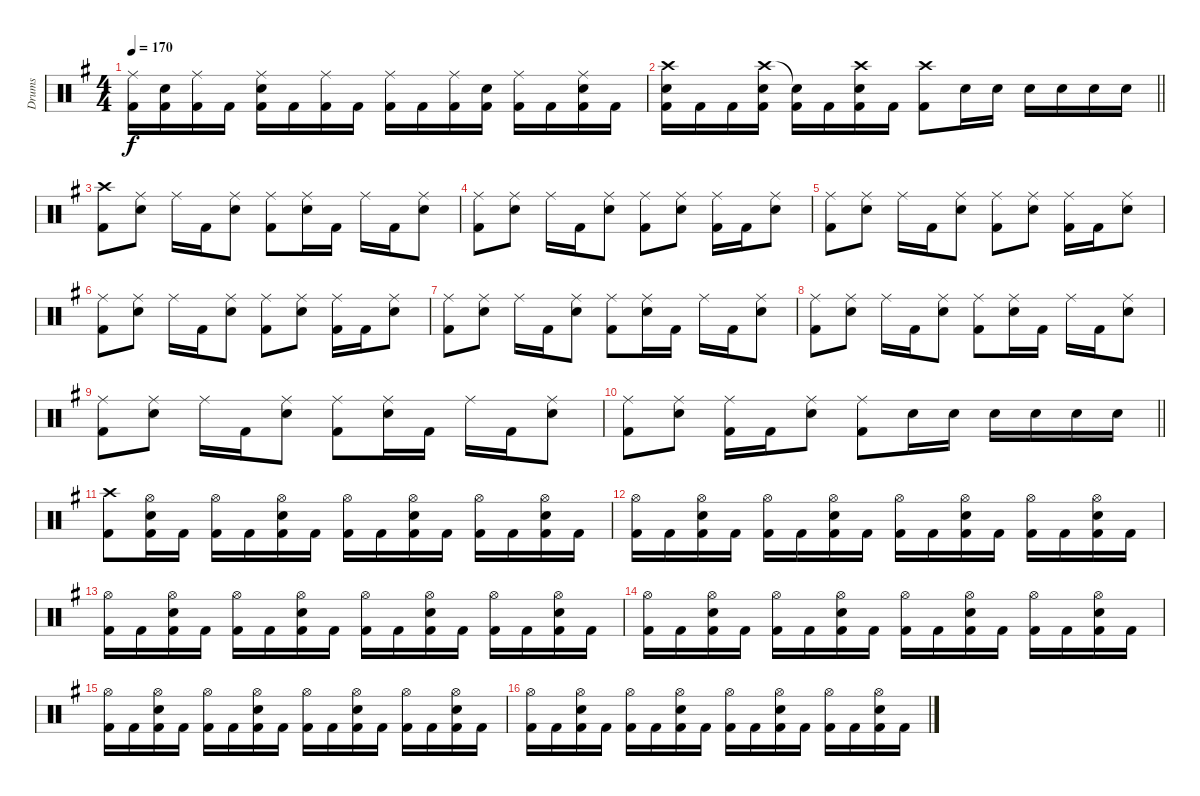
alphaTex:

\track ("Drums" "Drums") {instrument percussion}
\staff {score}
\articulation defaults
\ts (4 4)
\tempo 170
\clef neutral
\ks g
("Ride (middle)" "Kick (hit) 2").16{dy f} ("Snare (hit) 2" "Kick (hit) 2").16 ("Ride (middle)" "Kick (hit) 2").16 "Kick (hit) 2".16 ("Ride (middle)" "Snare (hit) 2" "Kick (hit) 2").16 "Kick (hit) 2".16 ("Ride (middle)" "Kick (hit) 2").16 "Kick (hit) 2".16 ("Ride (middle)" "Kick (hit) 2").16 "Kick (hit) 2".16 ("Ride (middle)" "Kick (hit) 2").16 ("Snare (hit) 2" "Kick (hit) 2").16 ("Ride (middle)" "Kick (hit) 2").16 "Kick (hit) 2".16 ("Ride (middle)" "Snare (hit) 2" "Kick (hit) 2").16 "Kick (hit) 2".16 |
\barLineRight lightlight
("Crash high (hit)" "Snare (hit) 2" "Kick (hit) 2").16 "Kick (hit) 2".16 "Kick (hit) 2".16 ("Crash high (hit)" "Snare (hit) 2" "Kick (hit) 2").16 ("Snare (hit)"{t} "Kick (hit) 2").16 "Kick (hit) 2".16 ("Crash high (hit)" "Snare (hit) 2" "Kick (hit) 2").16 "Kick (hit) 2".16 ("Crash high (hit)" "Kick (hit) 2").8 "Snare (hit) 2".16 "Snare (hit) 2".16 "Snare (hit) 2".16 "Snare (hit) 2".16 "Snare (hit) 2".16 "Snare (hit) 2".16 |
("Crash high (hit)" "Kick (hit) 2").8 ("Ride (middle)" "Snare (hit) 2").8 "Ride (middle)".16 "Kick (hit) 2".16 ("Ride (middle)" "Snare (hit) 2").8 ("Ride (middle)" "Kick (hit) 2").8 ("Ride (middle)" "Snare (hit) 2").16 "Kick (hit) 2".16 "Ride (middle)".16 "Kick (hit) 2".16 ("Ride (middle)" "Snare (hit) 2").8 |
("Ride (middle)" "Kick (hit) 2").8 ("Ride (middle)" "Snare (hit) 2").8 "Ride (middle)".16 "Kick (hit) 2".16 ("Ride (middle)" "Snare (hit) 2").8 ("Ride (middle)" "Kick (hit) 2").8 ("Ride (middle)" "Snare (hit) 2").8 ("Ride (middle)" "Kick (hit) 2").16 "Kick (hit) 2".16 ("Ride (middle)" "Snare (hit) 2").8 |
("Ride (middle)" "Kick (hit) 2").8 ("Ride (middle)" "Snare (hit) 2").8 "Ride (middle)".16 "Kick (hit) 2".16 ("Ride (middle)" "Snare (hit) 2").8 ("Ride (middle)" "Kick (hit) 2").8 ("Ride (middle)" "Snare (hit) 2").8 ("Ride (middle)" "Kick (hit) 2").16 "Kick (hit) 2".16 ("Ride (middle)" "Snare (hit) 2").8 |
("Ride (middle)" "Kick (hit) 2").8 ("Ride (middle)" "Snare (hit) 2").8 "Ride (middle)".16 "Kick (hit) 2".16 ("Ride (middle)" "Snare (hit) 2").8 ("Ride (middle)" "Kick (hit) 2").8 ("Ride (middle)" "Snare (hit) 2").8 ("Ride (middle)" "Kick (hit) 2").16 "Kick (hit) 2".16 ("Ride (middle)" "Snare (hit) 2").8 |
("Ride (middle)" "Kick (hit) 2").8 ("Ride (middle)" "Snare (hit) 2").8 "Ride (middle)".16 "Kick (hit) 2".16 ("Ride (middle)" "Snare (hit) 2").8 ("Ride (middle)" "Kick (hit) 2").8 ("Ride (middle)" "Snare (hit) 2").16 "Kick (hit) 2".16 "Ride (middle)".16 "Kick (hit) 2".16 ("Ride (middle)" "Snare (hit) 2").8 |
("Ride (middle)" "Kick (hit) 2").8 ("Ride (middle)" "Snare (hit) 2").8 "Ride (middle)".16 "Kick (hit) 2".16 ("Ride (middle)" "Snare (hit) 2").8 ("Ride (middle)" "Kick (hit) 2").8 ("Ride (middle)" "Snare (hit) 2").16 "Kick (hit) 2".16 "Ride (middle)".16 "Kick (hit) 2".16 ("Ride (middle)" "Snare (hit) 2").8 |
("Ride (middle)" "Kick (hit) 2").8 ("Ride (middle)" "Snare (hit) 2").8 "Ride (middle)".16 "Kick (hit) 2".16 ("Ride (middle)" "Snare (hit) 2").8 ("Ride (middle)" "Kick (hit) 2").8 ("Ride (middle)" "Snare (hit) 2").16 "Kick (hit) 2".16 "Ride (middle)".16 "Kick (hit) 2".16 ("Ride (middle)" "Snare (hit) 2").8 |
\barLineRight lightlight
("Ride (middle)" "Kick (hit) 2").8 ("Ride (middle)" "Snare (hit) 2").8 ("Ride (middle)" "Kick (hit) 2").16 "Kick (hit) 2".16 ("Ride (middle)" "Snare (hit) 2").8 ("Ride (middle)" "Kick (hit) 2").8 "Snare (hit) 2".16 "Snare (hit) 2".16 "Snare (hit) 2".16 "Snare (hit) 2".16 "Snare (hit) 2".16 "Snare (hit) 2".16 |
("Crash high (hit)" "Kick (hit) 2").8 ("Hi-Hat (open)" "Snare (hit) 2" "Kick (hit) 2").16 "Kick (hit) 2".16 ("Hi-Hat (open)" "Kick (hit) 2").16 "Kick (hit) 2".16 ("Hi-Hat (open)" "Snare (hit) 2" "Kick (hit) 2").16 "Kick (hit) 2".16 ("Hi-Hat (open)" "Kick (hit) 2").16 "Kick (hit) 2".16 ("Hi-Hat (open)" "Snare (hit) 2" "Kick (hit) 2").16 "Kick (hit) 2".16 ("Hi-Hat (open)" "Kick (hit) 2").16 "Kick (hit) 2".16 ("Hi-Hat (open)" "Snare (hit) 2" "Kick (hit) 2").16 "Kick (hit) 2".16 |
("Hi-Hat (open)" "Kick (hit) 2").16 "Kick (hit) 2".16 ("Hi-Hat (open)" "Snare (hit) 2" "Kick (hit) 2").16 "Kick (hit) 2".16 ("Hi-Hat (open)" "Kick (hit) 2").16 "Kick (hit) 2".16 ("Hi-Hat (open)" "Snare (hit) 2" "Kick (hit) 2").16 "Kick (hit) 2".16 ("Hi-Hat (open)" "Kick (hit) 2").16 "Kick (hit) 2".16 ("Hi-Hat (open)" "Snare (hit) 2" "Kick (hit) 2").16 "Kick (hit) 2".16 ("Hi-Hat (open)" "Kick (hit) 2").16 "Kick (hit) 2".16 ("Hi-Hat (open)" "Snare (hit) 2" "Kick (hit) 2").16 "Kick (hit) 2".16 |
("Hi-Hat (open)" "Kick (hit) 2").16 "Kick (hit) 2".16 ("Hi-Hat (open)" "Snare (hit) 2" "Kick (hit) 2").16 "Kick (hit) 2".16 ("Hi-Hat (open)" "Kick (hit) 2").16 "Kick (hit) 2".16 ("Hi-Hat (open)" "Snare (hit) 2" "Kick (hit) 2").16 "Kick (hit) 2".16 ("Hi-Hat (open)" "Kick (hit) 2").16 "Kick (hit) 2".16 ("Hi-Hat (open)" "Snare (hit) 2" "Kick (hit) 2").16 "Kick (hit) 2".16 ("Hi-Hat (open)" "Kick (hit) 2").16 "Kick (hit) 2".16 ("Hi-Hat (open)" "Snare (hit) 2" "Kick (hit) 2").16 "Kick (hit) 2".16 |
("Hi-Hat (open)" "Kick (hit) 2").16 "Kick (hit) 2".16 ("Hi-Hat (open)" "Snare (hit) 2" "Kick (hit) 2").16 "Kick (hit) 2".16 ("Hi-Hat (open)" "Kick (hit) 2").16 "Kick (hit) 2".16 ("Hi-Hat (open)" "Snare (hit) 2" "Kick (hit) 2").16 "Kick (hit) 2".16 ("Hi-Hat (open)" "Kick (hit) 2").16 "Kick (hit) 2".16 ("Hi-Hat (open)" "Snare (hit) 2" "Kick (hit) 2").16 "Kick (hit) 2".16 ("Hi-Hat (open)" "Kick (hit) 2").16 "Kick (hit) 2".16 ("Hi-Hat (open)" "Snare (hit) 2" "Kick (hit) 2").16 "Kick (hit) 2".16 |
("Hi-Hat (open)" "Kick (hit) 2").16 "Kick (hit) 2".16 ("Hi-Hat (open)" "Snare (hit) 2" "Kick (hit) 2").16 "Kick (hit) 2".16 ("Hi-Hat (open)" "Kick (hit) 2").16 "Kick (hit) 2".16 ("Hi-Hat (open)" "Snare (hit) 2" "Kick (hit) 2").16 "Kick (hit) 2".16 ("Hi-Hat (open)" "Kick (hit) 2").16 "Kick (hit) 2".16 ("Hi-Hat (open)" "Snare (hit) 2" "Kick (hit) 2").16 "Kick (hit) 2".16 ("Hi-Hat (open)" "Kick (hit) 2").16 "Kick (hit) 2".16 ("Hi-Hat (open)" "Snare (hit) 2" "Kick (hit) 2").16 "Kick (hit) 2".16 |
("Hi-Hat (open)" "Kick (hit) 2").16 "Kick (hit) 2".16 ("Hi-Hat (open)" "Snare (hit) 2" "Kick (hit) 2").16 "Kick (hit) 2".16 ("Hi-Hat (open)" "Kick (hit) 2").16 "Kick (hit) 2".16 ("Hi-Hat (open)" "Snare (hit) 2" "Kick (hit) 2").16 "Kick (hit) 2".16 ("Hi-Hat (open)" "Kick (hit) 2").16 "Kick (hit) 2".16 ("Hi-Hat (open)" "Snare (hit) 2" "Kick (hit) 2").16 "Kick (hit) 2".16 ("Hi-Hat (open)" "Kick (hit) 2").16 "Kick (hit) 2".16 ("Hi-Hat (open)" "Snare (hit) 2" "Kick (hit) 2").16 "Kick (hit) 2".16
